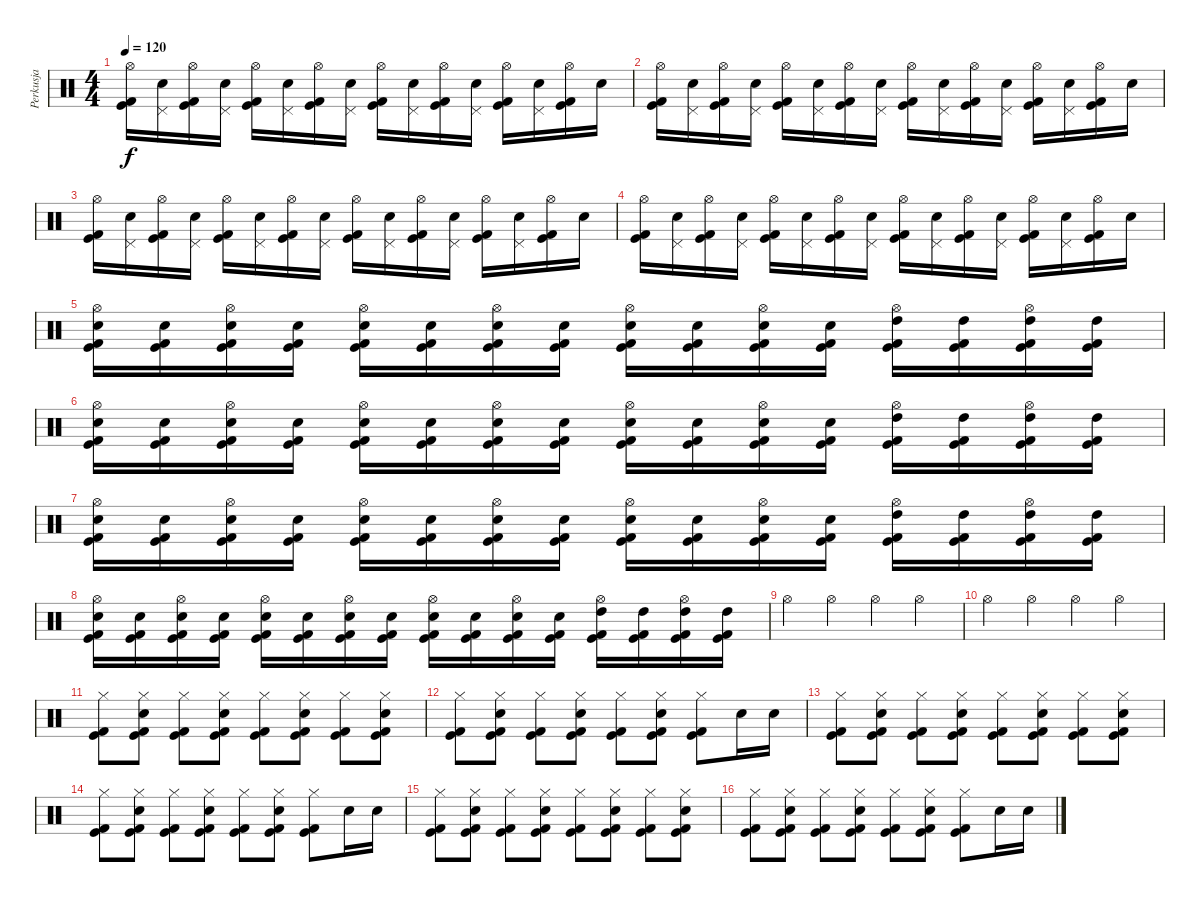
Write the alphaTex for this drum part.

\track ("Perkusja" "Perkusja") {instrument percussion}
\staff {score}
\articulation defaults
\ts (4 4)
\tempo 120
\clef neutral
\ks c
("Hi-Hat (open)" "Kick (hit)" "Kick (hit) 2").16{dy f} ("Pedal Hi-Hat (hit)" "Snare (hit) 2").16 ("Hi-Hat (open)" "Kick (hit)" "Kick (hit) 2").16 ("Pedal Hi-Hat (hit)" "Snare (hit) 2").16 ("Hi-Hat (open)" "Kick (hit)" "Kick (hit) 2").16 ("Pedal Hi-Hat (hit)" "Snare (hit) 2").16 ("Hi-Hat (open)" "Kick (hit)" "Kick (hit) 2").16 ("Pedal Hi-Hat (hit)" "Snare (hit) 2").16 ("Hi-Hat (open)" "Kick (hit)" "Kick (hit) 2").16 ("Pedal Hi-Hat (hit)" "Snare (hit) 2").16 ("Hi-Hat (open)" "Kick (hit)" "Kick (hit) 2").16 ("Pedal Hi-Hat (hit)" "Snare (hit) 2").16 ("Hi-Hat (open)" "Kick (hit)" "Kick (hit) 2").16 ("Pedal Hi-Hat (hit)" "Snare (hit) 2").16 ("Hi-Hat (open)" "Kick (hit)" "Kick (hit) 2").16 "Snare (hit) 2".16 |
("Hi-Hat (open)" "Kick (hit)" "Kick (hit) 2").16 ("Pedal Hi-Hat (hit)" "Snare (hit) 2").16 ("Hi-Hat (open)" "Kick (hit)" "Kick (hit) 2").16 ("Pedal Hi-Hat (hit)" "Snare (hit) 2").16 ("Hi-Hat (open)" "Kick (hit)" "Kick (hit) 2").16 ("Pedal Hi-Hat (hit)" "Snare (hit) 2").16 ("Hi-Hat (open)" "Kick (hit)" "Kick (hit) 2").16 ("Pedal Hi-Hat (hit)" "Snare (hit) 2").16 ("Hi-Hat (open)" "Kick (hit)" "Kick (hit) 2").16 ("Pedal Hi-Hat (hit)" "Snare (hit) 2").16 ("Hi-Hat (open)" "Kick (hit)" "Kick (hit) 2").16 ("Pedal Hi-Hat (hit)" "Snare (hit) 2").16 ("Hi-Hat (open)" "Kick (hit)" "Kick (hit) 2").16 ("Pedal Hi-Hat (hit)" "Snare (hit) 2").16 ("Hi-Hat (open)" "Kick (hit)" "Kick (hit) 2").16 "Snare (hit) 2".16 |
("Hi-Hat (open)" "Kick (hit)" "Kick (hit) 2").16 ("Pedal Hi-Hat (hit)" "Snare (hit) 2").16 ("Hi-Hat (open)" "Kick (hit)" "Kick (hit) 2").16 ("Pedal Hi-Hat (hit)" "Snare (hit) 2").16 ("Hi-Hat (open)" "Kick (hit)" "Kick (hit) 2").16 ("Pedal Hi-Hat (hit)" "Snare (hit) 2").16 ("Hi-Hat (open)" "Kick (hit)" "Kick (hit) 2").16 ("Pedal Hi-Hat (hit)" "Snare (hit) 2").16 ("Hi-Hat (open)" "Kick (hit)" "Kick (hit) 2").16 ("Pedal Hi-Hat (hit)" "Snare (hit) 2").16 ("Hi-Hat (open)" "Kick (hit)" "Kick (hit) 2").16 ("Pedal Hi-Hat (hit)" "Snare (hit) 2").16 ("Hi-Hat (open)" "Kick (hit)" "Kick (hit) 2").16 ("Pedal Hi-Hat (hit)" "Snare (hit) 2").16 ("Hi-Hat (open)" "Kick (hit)" "Kick (hit) 2").16 "Snare (hit) 2".16 |
("Hi-Hat (open)" "Kick (hit)" "Kick (hit) 2").16 ("Pedal Hi-Hat (hit)" "Snare (hit) 2").16 ("Hi-Hat (open)" "Kick (hit)" "Kick (hit) 2").16 ("Pedal Hi-Hat (hit)" "Snare (hit) 2").16 ("Hi-Hat (open)" "Kick (hit)" "Kick (hit) 2").16 ("Pedal Hi-Hat (hit)" "Snare (hit) 2").16 ("Hi-Hat (open)" "Kick (hit)" "Kick (hit) 2").16 ("Pedal Hi-Hat (hit)" "Snare (hit) 2").16 ("Hi-Hat (open)" "Kick (hit)" "Kick (hit) 2").16 ("Pedal Hi-Hat (hit)" "Snare (hit) 2").16 ("Hi-Hat (open)" "Kick (hit)" "Kick (hit) 2").16 ("Pedal Hi-Hat (hit)" "Snare (hit) 2").16 ("Hi-Hat (open)" "Kick (hit)" "Kick (hit) 2").16 ("Pedal Hi-Hat (hit)" "Snare (hit) 2").16 ("Hi-Hat (open)" "Kick (hit)" "Kick (hit) 2").16 "Snare (hit) 2".16 |
("Hi-Hat (open)" "Snare (hit) 2" "Kick (hit)" "Kick (hit) 2").16 ("Snare (hit) 2" "Kick (hit)" "Kick (hit) 2").16 ("Hi-Hat (open)" "Snare (hit) 2" "Kick (hit)" "Kick (hit) 2").16 ("Snare (hit) 2" "Kick (hit)" "Kick (hit) 2").16 ("Hi-Hat (open)" "Snare (hit) 2" "Kick (hit)" "Kick (hit) 2").16 ("Snare (hit) 2" "Kick (hit)" "Kick (hit) 2").16 ("Hi-Hat (open)" "Snare (hit) 2" "Kick (hit)" "Kick (hit) 2").16 ("Snare (hit) 2" "Kick (hit)" "Kick (hit) 2").16 ("Hi-Hat (open)" "Electric Snare (hit)" "Kick (hit)" "Kick (hit) 2").16 ("Electric Snare (hit)" "Kick (hit)" "Kick (hit) 2").16 ("Hi-Hat (open)" "Electric Snare (hit)" "Kick (hit)" "Kick (hit) 2").16 ("Electric Snare (hit)" "Kick (hit)" "Kick (hit) 2").16 ("Hi-Hat (open)" "High Tom (hit)" "Kick (hit)" "Kick (hit) 2").16 ("High Tom (hit)" "Kick (hit)" "Kick (hit) 2").16 ("Hi-Hat (open)" "High Tom (hit)" "Kick (hit)" "Kick (hit) 2").16 ("High Tom (hit)" "Kick (hit)" "Kick (hit) 2").16 |
("Hi-Hat (open)" "Snare (hit) 2" "Kick (hit)" "Kick (hit) 2").16 ("Snare (hit) 2" "Kick (hit)" "Kick (hit) 2").16 ("Hi-Hat (open)" "Snare (hit) 2" "Kick (hit)" "Kick (hit) 2").16 ("Snare (hit) 2" "Kick (hit)" "Kick (hit) 2").16 ("Hi-Hat (open)" "Snare (hit) 2" "Kick (hit)" "Kick (hit) 2").16 ("Snare (hit) 2" "Kick (hit)" "Kick (hit) 2").16 ("Hi-Hat (open)" "Snare (hit) 2" "Kick (hit)" "Kick (hit) 2").16 ("Snare (hit) 2" "Kick (hit)" "Kick (hit) 2").16 ("Hi-Hat (open)" "Electric Snare (hit)" "Kick (hit)" "Kick (hit) 2").16 ("Electric Snare (hit)" "Kick (hit)" "Kick (hit) 2").16 ("Hi-Hat (open)" "Electric Snare (hit)" "Kick (hit)" "Kick (hit) 2").16 ("Electric Snare (hit)" "Kick (hit)" "Kick (hit) 2").16 ("Hi-Hat (open)" "High Tom (hit)" "Kick (hit)" "Kick (hit) 2").16 ("High Tom (hit)" "Kick (hit)" "Kick (hit) 2").16 ("Hi-Hat (open)" "High Tom (hit)" "Kick (hit)" "Kick (hit) 2").16 ("High Tom (hit)" "Kick (hit)" "Kick (hit) 2").16 |
("Hi-Hat (open)" "Snare (hit) 2" "Kick (hit)" "Kick (hit) 2").16 ("Snare (hit) 2" "Kick (hit)" "Kick (hit) 2").16 ("Hi-Hat (open)" "Snare (hit) 2" "Kick (hit)" "Kick (hit) 2").16 ("Snare (hit) 2" "Kick (hit)" "Kick (hit) 2").16 ("Hi-Hat (open)" "Snare (hit) 2" "Kick (hit)" "Kick (hit) 2").16 ("Snare (hit) 2" "Kick (hit)" "Kick (hit) 2").16 ("Hi-Hat (open)" "Snare (hit) 2" "Kick (hit)" "Kick (hit) 2").16 ("Snare (hit) 2" "Kick (hit)" "Kick (hit) 2").16 ("Hi-Hat (open)" "Electric Snare (hit)" "Kick (hit)" "Kick (hit) 2").16 ("Electric Snare (hit)" "Kick (hit)" "Kick (hit) 2").16 ("Hi-Hat (open)" "Electric Snare (hit)" "Kick (hit)" "Kick (hit) 2").16 ("Electric Snare (hit)" "Kick (hit)" "Kick (hit) 2").16 ("Hi-Hat (open)" "High Tom (hit)" "Kick (hit)" "Kick (hit) 2").16 ("High Tom (hit)" "Kick (hit)" "Kick (hit) 2").16 ("Hi-Hat (open)" "High Tom (hit)" "Kick (hit)" "Kick (hit) 2").16 ("High Tom (hit)" "Kick (hit)" "Kick (hit) 2").16 |
("Hi-Hat (open)" "Snare (hit) 2" "Kick (hit)" "Kick (hit) 2").16 ("Snare (hit) 2" "Kick (hit)" "Kick (hit) 2").16 ("Hi-Hat (open)" "Snare (hit) 2" "Kick (hit)" "Kick (hit) 2").16 ("Snare (hit) 2" "Kick (hit)" "Kick (hit) 2").16 ("Hi-Hat (open)" "Snare (hit) 2" "Kick (hit)" "Kick (hit) 2").16 ("Snare (hit) 2" "Kick (hit)" "Kick (hit) 2").16 ("Hi-Hat (open)" "Snare (hit) 2" "Kick (hit)" "Kick (hit) 2").16 ("Snare (hit) 2" "Kick (hit)" "Kick (hit) 2").16 ("Hi-Hat (open)" "Electric Snare (hit)" "Kick (hit)" "Kick (hit) 2").16 ("Electric Snare (hit)" "Kick (hit)" "Kick (hit) 2").16 ("Hi-Hat (open)" "Electric Snare (hit)" "Kick (hit)" "Kick (hit) 2").16 ("Electric Snare (hit)" "Kick (hit)" "Kick (hit) 2").16 ("Hi-Hat (open)" "High Tom (hit)" "Kick (hit)" "Kick (hit) 2").16 ("High Tom (hit)" "Kick (hit)" "Kick (hit) 2").16 ("Hi-Hat (open)" "High Tom (hit)" "Kick (hit)" "Kick (hit) 2").16 ("High Tom (hit)" "Kick (hit)" "Kick (hit) 2").16 |
"Hi-Hat (open)".4 "Hi-Hat (open)".4 "Hi-Hat (open)".4 "Hi-Hat (open)".4 |
"Hi-Hat (open)".4 "Hi-Hat (open)".4 "Hi-Hat (open)".4 "Hi-Hat (open)".4 |
("Hi-Hat (closed)" "Kick (hit)" "Kick (hit) 2").8 ("Hi-Hat (closed)" "Snare (hit) 2" "Kick (hit)" "Kick (hit) 2").8 ("Hi-Hat (closed)" "Kick (hit)" "Kick (hit) 2").8 ("Hi-Hat (closed)" "Snare (hit) 2" "Kick (hit)" "Kick (hit) 2").8 ("Hi-Hat (closed)" "Kick (hit)" "Kick (hit) 2").8 ("Hi-Hat (closed)" "Snare (hit) 2" "Kick (hit)" "Kick (hit) 2").8 ("Hi-Hat (closed)" "Kick (hit)" "Kick (hit) 2").8 ("Hi-Hat (closed)" "Snare (hit) 2" "Kick (hit)" "Kick (hit) 2").8 |
("Hi-Hat (closed)" "Kick (hit)" "Kick (hit) 2").8 ("Hi-Hat (closed)" "Snare (hit) 2" "Kick (hit)" "Kick (hit) 2").8 ("Hi-Hat (closed)" "Kick (hit)" "Kick (hit) 2").8 ("Hi-Hat (closed)" "Snare (hit) 2" "Kick (hit)" "Kick (hit) 2").8 ("Hi-Hat (closed)" "Kick (hit)" "Kick (hit) 2").8 ("Hi-Hat (closed)" "Snare (hit) 2" "Kick (hit)" "Kick (hit) 2").8 ("Hi-Hat (closed)" "Kick (hit)" "Kick (hit) 2").8 "Snare (hit) 2".16 "Snare (hit) 2".16 |
("Hi-Hat (closed)" "Kick (hit)" "Kick (hit) 2").8 ("Hi-Hat (closed)" "Snare (hit) 2" "Kick (hit)" "Kick (hit) 2").8 ("Hi-Hat (closed)" "Kick (hit)" "Kick (hit) 2").8 ("Hi-Hat (closed)" "Snare (hit) 2" "Kick (hit)" "Kick (hit) 2").8 ("Hi-Hat (closed)" "Kick (hit)" "Kick (hit) 2").8 ("Hi-Hat (closed)" "Snare (hit) 2" "Kick (hit)" "Kick (hit) 2").8 ("Hi-Hat (closed)" "Kick (hit)" "Kick (hit) 2").8 ("Hi-Hat (closed)" "Snare (hit) 2" "Kick (hit)" "Kick (hit) 2").8 |
("Hi-Hat (closed)" "Kick (hit)" "Kick (hit) 2").8 ("Hi-Hat (closed)" "Snare (hit) 2" "Kick (hit)" "Kick (hit) 2").8 ("Hi-Hat (closed)" "Kick (hit)" "Kick (hit) 2").8 ("Hi-Hat (closed)" "Snare (hit) 2" "Kick (hit)" "Kick (hit) 2").8 ("Hi-Hat (closed)" "Kick (hit)" "Kick (hit) 2").8 ("Hi-Hat (closed)" "Snare (hit) 2" "Kick (hit)" "Kick (hit) 2").8 ("Hi-Hat (closed)" "Kick (hit)" "Kick (hit) 2").8 "Snare (hit) 2".16 "Snare (hit) 2".16 |
("Hi-Hat (closed)" "Kick (hit)" "Kick (hit) 2").8 ("Hi-Hat (closed)" "Snare (hit) 2" "Kick (hit)" "Kick (hit) 2").8 ("Hi-Hat (closed)" "Kick (hit)" "Kick (hit) 2").8 ("Hi-Hat (closed)" "Snare (hit) 2" "Kick (hit)" "Kick (hit) 2").8 ("Hi-Hat (closed)" "Kick (hit)" "Kick (hit) 2").8 ("Hi-Hat (closed)" "Snare (hit) 2" "Kick (hit)" "Kick (hit) 2").8 ("Hi-Hat (closed)" "Kick (hit)" "Kick (hit) 2").8 ("Hi-Hat (closed)" "Snare (hit) 2" "Kick (hit)" "Kick (hit) 2").8 |
("Hi-Hat (closed)" "Kick (hit)" "Kick (hit) 2").8 ("Hi-Hat (closed)" "Snare (hit) 2" "Kick (hit)" "Kick (hit) 2").8 ("Hi-Hat (closed)" "Kick (hit)" "Kick (hit) 2").8 ("Hi-Hat (closed)" "Snare (hit) 2" "Kick (hit)" "Kick (hit) 2").8 ("Hi-Hat (closed)" "Kick (hit)" "Kick (hit) 2").8 ("Hi-Hat (closed)" "Snare (hit) 2" "Kick (hit)" "Kick (hit) 2").8 ("Hi-Hat (closed)" "Kick (hit)" "Kick (hit) 2").8 "Snare (hit) 2".16 "Snare (hit) 2".16
